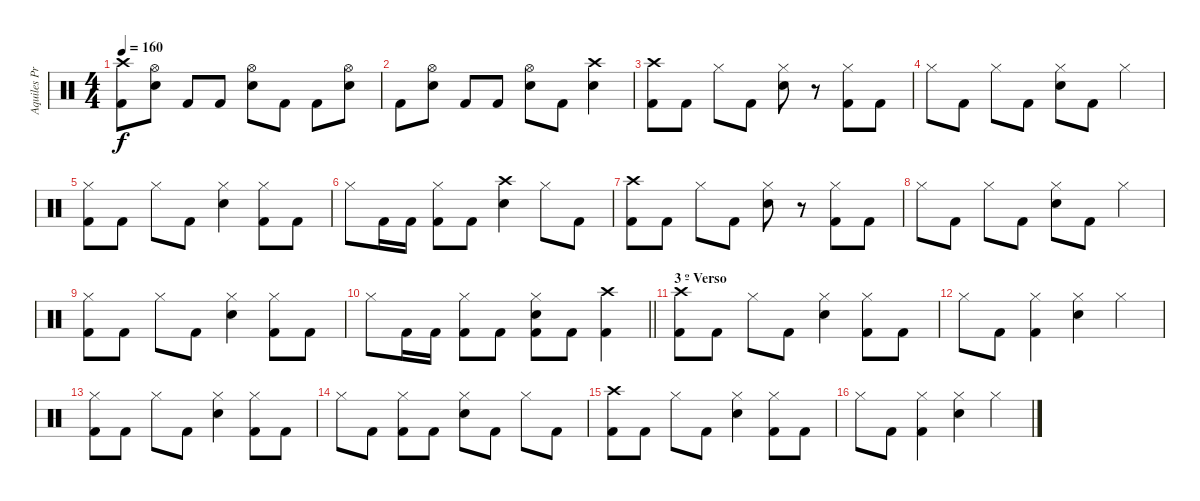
\track ("Aquiles Priester" "Aquiles Pr") {instrument percussion}
\staff {score}
\articulation defaults
\ts (4 4)
\tempo 160
\clef neutral
\ks c
("Crash high (hit)" "Kick (hit) 2").8{dy f} ("Hi-Hat (open)" "Electric Snare (hit)").8 "Kick (hit) 2".8 "Kick (hit) 2".8 ("Hi-Hat (open)" "Electric Snare (hit)").8 "Kick (hit) 2".8 "Kick (hit) 2".8 ("Hi-Hat (open)" "Electric Snare (hit)").8 |
"Kick (hit) 2".8 ("Hi-Hat (open)" "Electric Snare (hit)").8 "Kick (hit) 2".8 "Kick (hit) 2".8 ("Hi-Hat (open)" "Electric Snare (hit)").8 "Kick (hit) 2".8 ("Crash high (hit)" "Electric Snare (hit)").4 |
("Crash high (hit)" "Kick (hit) 2").8 "Kick (hit) 2".8 "Hi-Hat (closed)".8 "Kick (hit) 2".8 ("Hi-Hat (closed)" "Electric Snare (hit)").8 r.8 ("Hi-Hat (closed)" "Kick (hit) 2").8 "Kick (hit) 2".8 |
"Hi-Hat (closed)".8 "Kick (hit) 2".8 "Hi-Hat (closed)".8 "Kick (hit) 2".8 ("Hi-Hat (closed)" "Electric Snare (hit)").8 "Kick (hit) 2".8 "Hi-Hat (closed)".4 |
("Hi-Hat (closed)" "Kick (hit) 2").8 "Kick (hit) 2".8 "Hi-Hat (closed)".8 "Kick (hit) 2".8 ("Hi-Hat (closed)" "Electric Snare (hit)").4 ("Hi-Hat (closed)" "Kick (hit) 2").8 "Kick (hit) 2".8 |
"Hi-Hat (closed)".8 "Kick (hit) 2".16 "Kick (hit) 2".16 ("Hi-Hat (closed)" "Kick (hit) 2").8 "Kick (hit) 2".8 ("Crash high (hit)" "Electric Snare (hit)").4 "Hi-Hat (closed)".8 "Kick (hit) 2".8 |
("Crash high (hit)" "Kick (hit) 2").8 "Kick (hit) 2".8 "Hi-Hat (closed)".8 "Kick (hit) 2".8 ("Hi-Hat (closed)" "Electric Snare (hit)").8 r.8 ("Hi-Hat (closed)" "Kick (hit) 2").8 "Kick (hit) 2".8 |
"Hi-Hat (closed)".8 "Kick (hit) 2".8 "Hi-Hat (closed)".8 "Kick (hit) 2".8 ("Hi-Hat (closed)" "Electric Snare (hit)").8 "Kick (hit) 2".8 "Hi-Hat (closed)".4 |
("Hi-Hat (closed)" "Kick (hit) 2").8 "Kick (hit) 2".8 "Hi-Hat (closed)".8 "Kick (hit) 2".8 ("Hi-Hat (closed)" "Electric Snare (hit)").4 ("Hi-Hat (closed)" "Kick (hit) 2").8 "Kick (hit) 2".8 |
\barLineRight lightlight "Hi-Hat (closed)".8 "Kick (hit) 2".16 "Kick (hit) 2".16
("Hi-Hat (closed)" "Kick (hit) 2").8 "Kick (hit) 2".8 ("Hi-Hat (closed)" "Electric Snare (hit)" "Kick (hit) 2").8 "Kick (hit) 2".8 ("Crash high (hit)" "Kick (hit) 2").4 |
\section ("" "3 º Verso")
("Crash high (hit)" "Kick (hit) 2").8 "Kick (hit) 2".8 "Hi-Hat (closed)".8 "Kick (hit) 2".8 ("Hi-Hat (closed)" "Electric Snare (hit)").4 ("Hi-Hat (closed)" "Kick (hit) 2").8 "Kick (hit) 2".8 |
"Hi-Hat (closed)".8 "Kick (hit) 2".8 ("Hi-Hat (closed)" "Kick (hit) 2").4 ("Hi-Hat (closed)" "Electric Snare (hit)").4 "Hi-Hat (closed)".4 |
("Hi-Hat (closed)" "Kick (hit) 2").8 "Kick (hit) 2".8 "Hi-Hat (closed)".8 "Kick (hit) 2".8 ("Hi-Hat (closed)" "Electric Snare (hit)").4 ("Hi-Hat (closed)" "Kick (hit) 2").8 "Kick (hit) 2".8 |
"Hi-Hat (closed)".8 "Kick (hit) 2".8 ("Hi-Hat (closed)" "Kick (hit) 2").8 "Kick (hit) 2".8 ("Hi-Hat (closed)" "Electric Snare (hit)").8 "Kick (hit) 2".8 "Hi-Hat (closed)".8 "Kick (hit) 2".8 |
("Crash high (hit)" "Kick (hit) 2").8 "Kick (hit) 2".8 "Hi-Hat (closed)".8 "Kick (hit) 2".8 ("Hi-Hat (closed)" "Electric Snare (hit)").4 ("Hi-Hat (closed)" "Kick (hit) 2").8 "Kick (hit) 2".8 |
"Hi-Hat (closed)".8 "Kick (hit) 2".8 ("Hi-Hat (closed)" "Kick (hit) 2").4 ("Hi-Hat (closed)" "Electric Snare (hit)").4 "Hi-Hat (closed)".4
